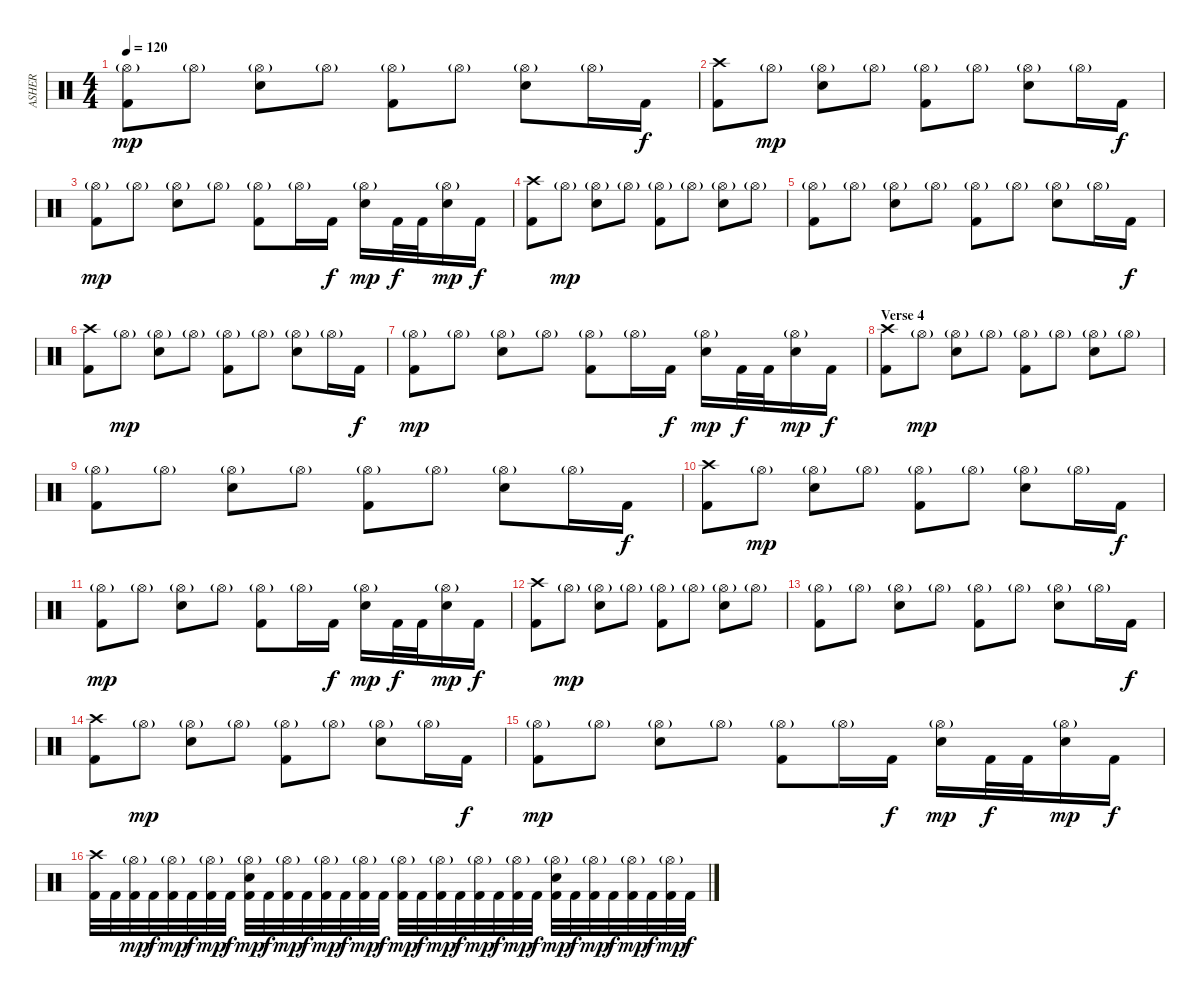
\track ("ASHER" "ASHER") {instrument percussion}
\staff {score}
\articulation defaults
\ts (4 4)
\tempo 120
\clef neutral
\ks c
("Hi-Hat (open)"{g} "Kick (hit) 2").8{dy mp} "Hi-Hat (open)"{g}.8 ("Hi-Hat (open)"{g} "Electric Snare (hit)").8 "Hi-Hat (open)"{g}.8 ("Hi-Hat (open)"{g} "Kick (hit) 2").8 "Hi-Hat (open)"{g}.8 ("Hi-Hat (open)"{g} "Electric Snare (hit)").8 "Hi-Hat (open)"{g}.16 "Kick (hit) 2".16{dy f} |
("Crash high (hit)" "Kick (hit) 2").8 "Hi-Hat (open)"{g}.8{dy mp} ("Hi-Hat (open)"{g} "Electric Snare (hit)").8 "Hi-Hat (open)"{g}.8 ("Hi-Hat (open)"{g} "Kick (hit) 2").8 "Hi-Hat (open)"{g}.8 ("Hi-Hat (open)"{g} "Electric Snare (hit)").8 "Hi-Hat (open)"{g}.16 "Kick (hit) 2".16{dy f} |
("Hi-Hat (open)"{g} "Kick (hit) 2").8{dy mp} "Hi-Hat (open)"{g}.8 ("Hi-Hat (open)"{g} "Electric Snare (hit)").8 "Hi-Hat (open)"{g}.8 ("Hi-Hat (open)"{g} "Kick (hit) 2").8 "Hi-Hat (open)"{g}.16 "Kick (hit) 2".16{dy f} ("Hi-Hat (open)"{g} "Electric Snare (hit)").16{dy mp} "Kick (hit) 2".32{dy f} "Kick (hit) 2".32 ("Hi-Hat (open)"{g} "Electric Snare (hit)").16{dy mp} "Kick (hit) 2".16{dy f} |
("Crash high (hit)" "Kick (hit) 2").8 "Hi-Hat (open)"{g}.8{dy mp} ("Hi-Hat (open)"{g} "Electric Snare (hit)").8 "Hi-Hat (open)"{g}.8 ("Hi-Hat (open)"{g} "Kick (hit) 2").8 "Hi-Hat (open)"{g}.8 ("Hi-Hat (open)"{g} "Electric Snare (hit)").8 "Hi-Hat (open)"{g}.8 |
("Hi-Hat (open)"{g} "Kick (hit) 2").8 "Hi-Hat (open)"{g}.8 ("Hi-Hat (open)"{g} "Electric Snare (hit)").8 "Hi-Hat (open)"{g}.8 ("Hi-Hat (open)"{g} "Kick (hit) 2").8 "Hi-Hat (open)"{g}.8 ("Hi-Hat (open)"{g} "Electric Snare (hit)").8 "Hi-Hat (open)"{g}.16 "Kick (hit) 2".16{dy f} |
("Crash high (hit)" "Kick (hit) 2").8 "Hi-Hat (open)"{g}.8{dy mp} ("Hi-Hat (open)"{g} "Electric Snare (hit)").8 "Hi-Hat (open)"{g}.8 ("Hi-Hat (open)"{g} "Kick (hit) 2").8 "Hi-Hat (open)"{g}.8 ("Hi-Hat (open)"{g} "Electric Snare (hit)").8 "Hi-Hat (open)"{g}.16 "Kick (hit) 2".16{dy f} |
("Hi-Hat (open)"{g} "Kick (hit) 2").8{dy mp} "Hi-Hat (open)"{g}.8 ("Hi-Hat (open)"{g} "Electric Snare (hit)").8 "Hi-Hat (open)"{g}.8 ("Hi-Hat (open)"{g} "Kick (hit) 2").8 "Hi-Hat (open)"{g}.16 "Kick (hit) 2".16{dy f} ("Hi-Hat (open)"{g} "Electric Snare (hit)").16{dy mp} "Kick (hit) 2".32{dy f} "Kick (hit) 2".32 ("Hi-Hat (open)"{g} "Electric Snare (hit)").16{dy mp} "Kick (hit) 2".16{dy f} |
\section ("" "Verse 4")
("Crash high (hit)" "Kick (hit) 2").8 "Hi-Hat (open)"{g}.8{dy mp} ("Hi-Hat (open)"{g} "Electric Snare (hit)").8 "Hi-Hat (open)"{g}.8 ("Hi-Hat (open)"{g} "Kick (hit) 2").8 "Hi-Hat (open)"{g}.8 ("Hi-Hat (open)"{g} "Electric Snare (hit)").8 "Hi-Hat (open)"{g}.8 |
("Hi-Hat (open)"{g} "Kick (hit) 2").8 "Hi-Hat (open)"{g}.8 ("Hi-Hat (open)"{g} "Electric Snare (hit)").8 "Hi-Hat (open)"{g}.8 ("Hi-Hat (open)"{g} "Kick (hit) 2").8 "Hi-Hat (open)"{g}.8 ("Hi-Hat (open)"{g} "Electric Snare (hit)").8 "Hi-Hat (open)"{g}.16 "Kick (hit) 2".16{dy f} |
("Crash high (hit)" "Kick (hit) 2").8 "Hi-Hat (open)"{g}.8{dy mp} ("Hi-Hat (open)"{g} "Electric Snare (hit)").8 "Hi-Hat (open)"{g}.8 ("Hi-Hat (open)"{g} "Kick (hit) 2").8 "Hi-Hat (open)"{g}.8 ("Hi-Hat (open)"{g} "Electric Snare (hit)").8 "Hi-Hat (open)"{g}.16 "Kick (hit) 2".16{dy f} |
("Hi-Hat (open)"{g} "Kick (hit) 2").8{dy mp} "Hi-Hat (open)"{g}.8 ("Hi-Hat (open)"{g} "Electric Snare (hit)").8 "Hi-Hat (open)"{g}.8 ("Hi-Hat (open)"{g} "Kick (hit) 2").8 "Hi-Hat (open)"{g}.16 "Kick (hit) 2".16{dy f} ("Hi-Hat (open)"{g} "Electric Snare (hit)").16{dy mp} "Kick (hit) 2".32{dy f} "Kick (hit) 2".32 ("Hi-Hat (open)"{g} "Electric Snare (hit)").16{dy mp} "Kick (hit) 2".16{dy f} |
("Crash high (hit)" "Kick (hit) 2").8 "Hi-Hat (open)"{g}.8{dy mp} ("Hi-Hat (open)"{g} "Electric Snare (hit)").8 "Hi-Hat (open)"{g}.8 ("Hi-Hat (open)"{g} "Kick (hit) 2").8 "Hi-Hat (open)"{g}.8 ("Hi-Hat (open)"{g} "Electric Snare (hit)").8 "Hi-Hat (open)"{g}.8 |
("Hi-Hat (open)"{g} "Kick (hit) 2").8 "Hi-Hat (open)"{g}.8 ("Hi-Hat (open)"{g} "Electric Snare (hit)").8 "Hi-Hat (open)"{g}.8 ("Hi-Hat (open)"{g} "Kick (hit) 2").8 "Hi-Hat (open)"{g}.8 ("Hi-Hat (open)"{g} "Electric Snare (hit)").8 "Hi-Hat (open)"{g}.16 "Kick (hit) 2".16{dy f} |
("Crash high (hit)" "Kick (hit) 2").8 "Hi-Hat (open)"{g}.8{dy mp} ("Hi-Hat (open)"{g} "Electric Snare (hit)").8 "Hi-Hat (open)"{g}.8 ("Hi-Hat (open)"{g} "Kick (hit) 2").8 "Hi-Hat (open)"{g}.8 ("Hi-Hat (open)"{g} "Electric Snare (hit)").8 "Hi-Hat (open)"{g}.16 "Kick (hit) 2".16{dy f} |
("Hi-Hat (open)"{g} "Kick (hit) 2").8{dy mp} "Hi-Hat (open)"{g}.8 ("Hi-Hat (open)"{g} "Electric Snare (hit)").8 "Hi-Hat (open)"{g}.8 ("Hi-Hat (open)"{g} "Kick (hit) 2").8 "Hi-Hat (open)"{g}.16 "Kick (hit) 2".16{dy f} ("Hi-Hat (open)"{g} "Electric Snare (hit)").16{dy mp} "Kick (hit) 2".32{dy f} "Kick (hit) 2".32 ("Hi-Hat (open)"{g} "Electric Snare (hit)").16{dy mp} "Kick (hit) 2".16{dy f} |
("Crash high (hit)" "Kick (hit) 2").32 "Kick (hit) 2".32 ("Hi-Hat (open)"{g} "Kick (hit) 2").32{dy mp} "Kick (hit) 2".32{dy f} ("Hi-Hat (open)"{g} "Kick (hit) 2").32{dy mp} "Kick (hit) 2".32{dy f} ("Hi-Hat (open)"{g} "Kick (hit) 2").32{dy mp} "Kick (hit) 2".32{dy f} ("Hi-Hat (open)"{g} "Electric Snare (hit)" "Kick (hit) 2").32{dy mp} "Kick (hit) 2".32{dy f} ("Hi-Hat (open)"{g} "Kick (hit) 2").32{dy mp} "Kick (hit) 2".32{dy f} ("Hi-Hat (open)"{g} "Kick (hit) 2").32{dy mp} "Kick (hit) 2".32{dy f} ("Hi-Hat (open)"{g} "Kick (hit) 2").32{dy mp} "Kick (hit) 2".32{dy f} ("Hi-Hat (open)"{g} "Kick (hit) 2").32{dy mp} "Kick (hit) 2".32{dy f} ("Hi-Hat (open)"{g} "Kick (hit) 2").32{dy mp} "Kick (hit) 2".32{dy f} ("Hi-Hat (open)"{g} "Kick (hit) 2").32{dy mp} "Kick (hit) 2".32{dy f} ("Hi-Hat (open)"{g} "Kick (hit) 2").32{dy mp} "Kick (hit) 2".32{dy f} ("Hi-Hat (open)"{g} "Electric Snare (hit)" "Kick (hit) 2").32{dy mp} "Kick (hit) 2".32{dy f} ("Hi-Hat (open)"{g} "Kick (hit) 2").32{dy mp} "Kick (hit) 2".32{dy f} ("Hi-Hat (open)"{g} "Kick (hit) 2").32{dy mp} "Kick (hit) 2".32{dy f} ("Hi-Hat (open)"{g} "Kick (hit) 2").32{dy mp} "Kick (hit) 2".32{dy f}
